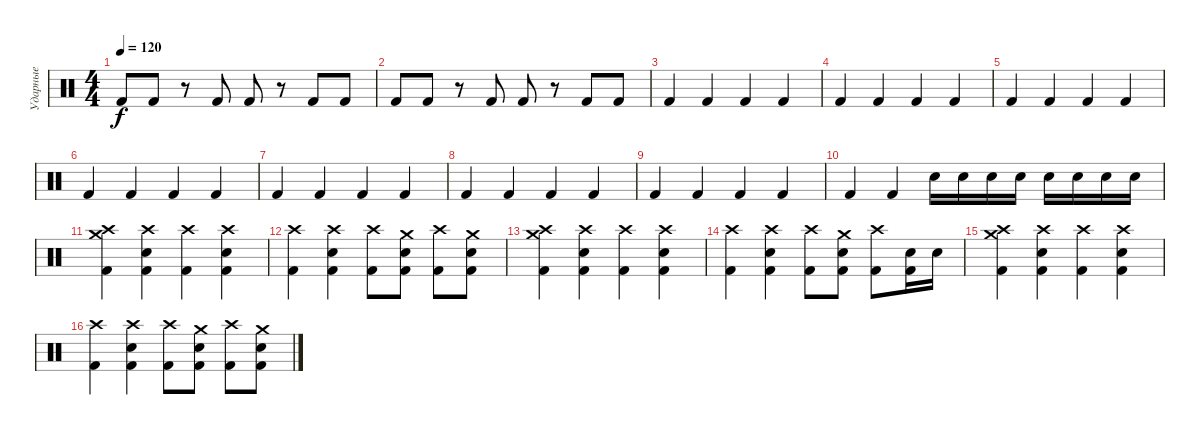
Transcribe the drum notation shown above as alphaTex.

\track ("Ударные" "Ударные") {instrument percussion}
\staff {score}
\articulation defaults
\ts (4 4)
\tempo 120
\clef neutral
\ks c "Kick (hit) 2".8{dy f} "Kick (hit) 2".8
r.8 "Kick (hit) 2".8 "Kick (hit) 2".8 r.8 "Kick (hit) 2".8 "Kick (hit) 2".8 |
"Kick (hit) 2".8 "Kick (hit) 2".8 r.8 "Kick (hit) 2".8 "Kick (hit) 2".8 r.8 "Kick (hit) 2".8 "Kick (hit) 2".8 |
"Kick (hit) 2".4 "Kick (hit) 2".4 "Kick (hit) 2".4 "Kick (hit) 2".4 |
"Kick (hit) 2".4 "Kick (hit) 2".4 "Kick (hit) 2".4 "Kick (hit) 2".4 |
"Kick (hit) 2".4 "Kick (hit) 2".4 "Kick (hit) 2".4 "Kick (hit) 2".4 |
"Kick (hit) 2".4 "Kick (hit) 2".4 "Kick (hit) 2".4 "Kick (hit) 2".4 |
"Kick (hit) 2".4 "Kick (hit) 2".4 "Kick (hit) 2".4 "Kick (hit) 2".4 |
"Kick (hit) 2".4 "Kick (hit) 2".4 "Kick (hit) 2".4 "Kick (hit) 2".4 |
"Kick (hit) 2".4 "Kick (hit) 2".4 "Kick (hit) 2".4 "Kick (hit) 2".4 |
"Kick (hit) 2".4 "Kick (hit) 2".4 "Snare (hit) 2".16 "Snare (hit) 2".16 "Snare (hit) 2".16 "Snare (hit) 2".16 "Snare (hit) 2".16 "Snare (hit) 2".16 "Snare (hit) 2".16 "Snare (hit) 2".16 |
("Crash medium (hit)" "Crash high (hit)" "Kick (hit) 2").4 ("Crash high (hit)" "Snare (hit) 2" "Kick (hit) 2").4 ("Crash high (hit)" "Kick (hit) 2").4 ("Crash high (hit)" "Snare (hit) 2" "Kick (hit) 2").4 |
("Crash high (hit)" "Kick (hit) 2").4 ("Crash high (hit)" "Snare (hit) 2" "Kick (hit) 2").4 ("Crash high (hit)" "Kick (hit) 2").8 ("Crash medium (hit)" "Snare (hit) 2" "Kick (hit) 2").8 ("Crash high (hit)" "Kick (hit) 2").8 ("Crash medium (hit)" "Snare (hit) 2" "Kick (hit) 2").8 |
("Crash medium (hit)" "Crash high (hit)" "Kick (hit) 2").4 ("Crash high (hit)" "Snare (hit) 2" "Kick (hit) 2").4 ("Crash high (hit)" "Kick (hit) 2").4 ("Crash high (hit)" "Snare (hit) 2" "Kick (hit) 2").4 |
("Crash high (hit)" "Kick (hit) 2").4 ("Crash high (hit)" "Snare (hit) 2" "Kick (hit) 2").4 ("Crash high (hit)" "Kick (hit) 2").8 ("Crash medium (hit)" "Snare (hit) 2" "Kick (hit) 2").8 ("Crash high (hit)" "Kick (hit) 2").8 ("Snare (hit) 2" "Kick (hit) 2").16 "Snare (hit) 2".16 |
("Crash medium (hit)" "Crash high (hit)" "Kick (hit) 2").4 ("Crash high (hit)" "Snare (hit) 2" "Kick (hit) 2").4 ("Crash high (hit)" "Kick (hit) 2").4 ("Crash high (hit)" "Snare (hit) 2" "Kick (hit) 2").4 |
("Crash high (hit)" "Kick (hit) 2").4 ("Crash high (hit)" "Snare (hit) 2" "Kick (hit) 2").4 ("Crash high (hit)" "Kick (hit) 2").8 ("Crash medium (hit)" "Snare (hit) 2" "Kick (hit) 2").8 ("Crash high (hit)" "Kick (hit) 2").8 ("Crash medium (hit)" "Snare (hit) 2" "Kick (hit) 2").8
